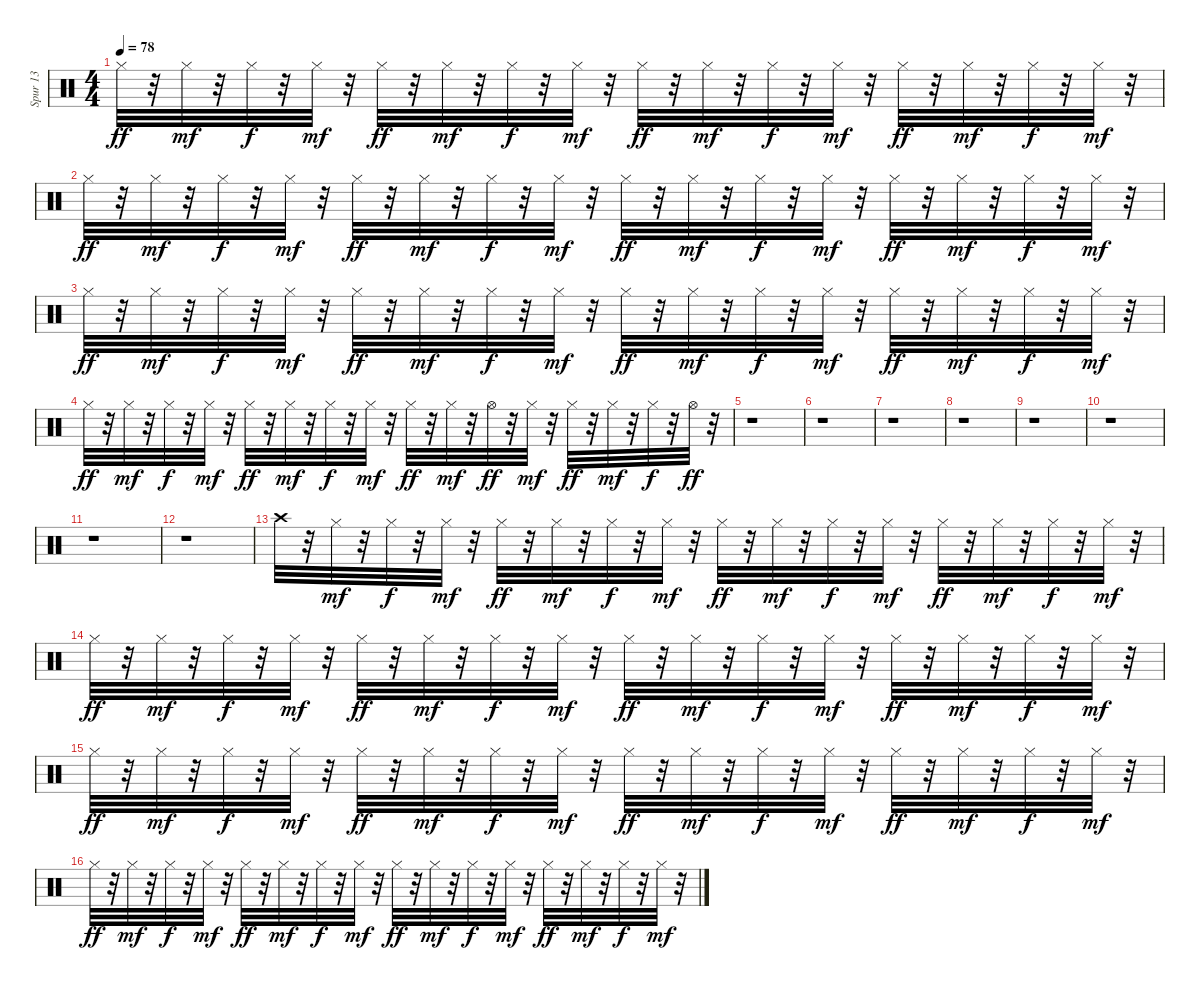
\track ("Spur 13" "Spur 13") {instrument percussion}
\staff {score}
\articulation defaults
\ts (4 4)
\tempo 78
\clef neutral
\ks c "Hi-Hat (closed)".32{dy ff}
r.32 "Hi-Hat (closed)".32{dy mf} r.32 "Hi-Hat (closed)".32{dy f} r.32 "Hi-Hat (closed)".32{dy mf} r.32 "Hi-Hat (closed)".32{dy ff} r.32 "Hi-Hat (closed)".32{dy mf} r.32 "Hi-Hat (closed)".32{dy f} r.32 "Hi-Hat (closed)".32{dy mf} r.32 "Hi-Hat (closed)".32{dy ff} r.32 "Hi-Hat (closed)".32{dy mf} r.32 "Hi-Hat (closed)".32{dy f} r.32 "Hi-Hat (closed)".32{dy mf} r.32 "Hi-Hat (closed)".32{dy ff} r.32 "Hi-Hat (closed)".32{dy mf} r.32 "Hi-Hat (closed)".32{dy f} r.32 "Hi-Hat (closed)".32{dy mf} r.32 |
"Hi-Hat (closed)".32{dy ff} r.32 "Hi-Hat (closed)".32{dy mf} r.32 "Hi-Hat (closed)".32{dy f} r.32 "Hi-Hat (closed)".32{dy mf} r.32 "Hi-Hat (closed)".32{dy ff} r.32 "Hi-Hat (closed)".32{dy mf} r.32 "Hi-Hat (closed)".32{dy f} r.32 "Hi-Hat (closed)".32{dy mf} r.32 "Hi-Hat (closed)".32{dy ff} r.32 "Hi-Hat (closed)".32{dy mf} r.32 "Hi-Hat (closed)".32{dy f} r.32 "Hi-Hat (closed)".32{dy mf} r.32 "Hi-Hat (closed)".32{dy ff} r.32 "Hi-Hat (closed)".32{dy mf} r.32 "Hi-Hat (closed)".32{dy f} r.32 "Hi-Hat (closed)".32{dy mf} r.32 |
"Hi-Hat (closed)".32{dy ff} r.32 "Hi-Hat (closed)".32{dy mf} r.32 "Hi-Hat (closed)".32{dy f} r.32 "Hi-Hat (closed)".32{dy mf} r.32 "Hi-Hat (closed)".32{dy ff} r.32 "Hi-Hat (closed)".32{dy mf} r.32 "Hi-Hat (closed)".32{dy f} r.32 "Hi-Hat (closed)".32{dy mf} r.32 "Hi-Hat (closed)".32{dy ff} r.32 "Hi-Hat (closed)".32{dy mf} r.32 "Hi-Hat (closed)".32{dy f} r.32 "Hi-Hat (closed)".32{dy mf} r.32 "Hi-Hat (closed)".32{dy ff} r.32 "Hi-Hat (closed)".32{dy mf} r.32 "Hi-Hat (closed)".32{dy f} r.32 "Hi-Hat (closed)".32{dy mf} r.32 |
"Hi-Hat (closed)".32{dy ff} r.32 "Hi-Hat (closed)".32{dy mf} r.32 "Hi-Hat (closed)".32{dy f} r.32 "Hi-Hat (closed)".32{dy mf} r.32 "Hi-Hat (closed)".32{dy ff} r.32 "Hi-Hat (closed)".32{dy mf} r.32 "Hi-Hat (closed)".32{dy f} r.32 "Hi-Hat (closed)".32{dy mf} r.32 "Hi-Hat (closed)".32{dy ff} r.32 "Hi-Hat (closed)".32{dy mf} r.32 "Hi-Hat (open)".32{dy ff} r.32 "Hi-Hat (closed)".32{dy mf} r.32 "Hi-Hat (closed)".32{dy ff} r.32 "Hi-Hat (closed)".32{dy mf} r.32 "Hi-Hat (closed)".32{dy f} r.32 "Hi-Hat (open)".32{dy ff} r.32 |
r.1 |
r.1 |
r.1 |
r.1 |
r.1 |
r.1 |
r.1 |
r.1 |
"Crash high (hit)".32 r.32 "Hi-Hat (closed)".32{dy mf} r.32 "Hi-Hat (closed)".32{dy f} r.32 "Hi-Hat (closed)".32{dy mf} r.32 "Hi-Hat (closed)".32{dy ff} r.32 "Hi-Hat (closed)".32{dy mf} r.32 "Hi-Hat (closed)".32{dy f} r.32 "Hi-Hat (closed)".32{dy mf} r.32 "Hi-Hat (closed)".32{dy ff} r.32 "Hi-Hat (closed)".32{dy mf} r.32 "Hi-Hat (closed)".32{dy f} r.32 "Hi-Hat (closed)".32{dy mf} r.32 "Hi-Hat (closed)".32{dy ff} r.32 "Hi-Hat (closed)".32{dy mf} r.32 "Hi-Hat (closed)".32{dy f} r.32 "Hi-Hat (closed)".32{dy mf} r.32 |
"Hi-Hat (closed)".32{dy ff} r.32 "Hi-Hat (closed)".32{dy mf} r.32 "Hi-Hat (closed)".32{dy f} r.32 "Hi-Hat (closed)".32{dy mf} r.32 "Hi-Hat (closed)".32{dy ff} r.32 "Hi-Hat (closed)".32{dy mf} r.32 "Hi-Hat (closed)".32{dy f} r.32 "Hi-Hat (closed)".32{dy mf} r.32 "Hi-Hat (closed)".32{dy ff} r.32 "Hi-Hat (closed)".32{dy mf} r.32 "Hi-Hat (closed)".32{dy f} r.32 "Hi-Hat (closed)".32{dy mf} r.32 "Hi-Hat (closed)".32{dy ff} r.32 "Hi-Hat (closed)".32{dy mf} r.32 "Hi-Hat (closed)".32{dy f} r.32 "Hi-Hat (closed)".32{dy mf} r.32 |
"Hi-Hat (closed)".32{dy ff} r.32 "Hi-Hat (closed)".32{dy mf} r.32 "Hi-Hat (closed)".32{dy f} r.32 "Hi-Hat (closed)".32{dy mf} r.32 "Hi-Hat (closed)".32{dy ff} r.32 "Hi-Hat (closed)".32{dy mf} r.32 "Hi-Hat (closed)".32{dy f} r.32 "Hi-Hat (closed)".32{dy mf} r.32 "Hi-Hat (closed)".32{dy ff} r.32 "Hi-Hat (closed)".32{dy mf} r.32 "Hi-Hat (closed)".32{dy f} r.32 "Hi-Hat (closed)".32{dy mf} r.32 "Hi-Hat (closed)".32{dy ff} r.32 "Hi-Hat (closed)".32{dy mf} r.32 "Hi-Hat (closed)".32{dy f} r.32 "Hi-Hat (closed)".32{dy mf} r.32 |
"Hi-Hat (closed)".32{dy ff} r.32 "Hi-Hat (closed)".32{dy mf} r.32 "Hi-Hat (closed)".32{dy f} r.32 "Hi-Hat (closed)".32{dy mf} r.32 "Hi-Hat (closed)".32{dy ff} r.32 "Hi-Hat (closed)".32{dy mf} r.32 "Hi-Hat (closed)".32{dy f} r.32 "Hi-Hat (closed)".32{dy mf} r.32 "Hi-Hat (closed)".32{dy ff} r.32 "Hi-Hat (closed)".32{dy mf} r.32 "Hi-Hat (closed)".32{dy f} r.32 "Hi-Hat (closed)".32{dy mf} r.32 "Hi-Hat (closed)".32{dy ff} r.32 "Hi-Hat (closed)".32{dy mf} r.32 "Hi-Hat (closed)".32{dy f} r.32 "Hi-Hat (closed)".32{dy mf} r.32
